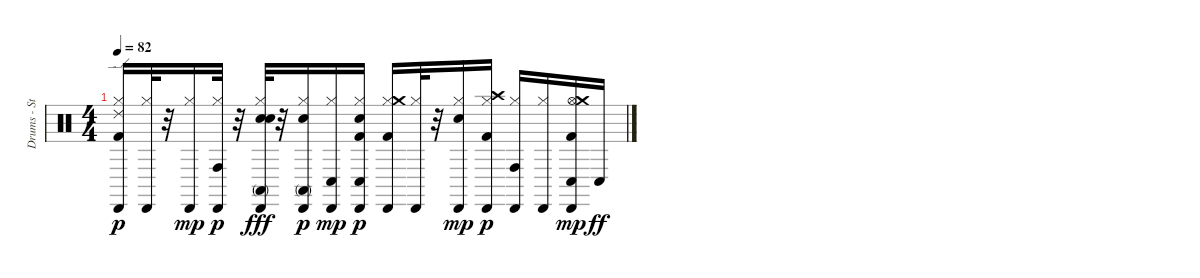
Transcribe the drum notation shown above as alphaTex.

\track ("Drums - Standard" "Drums - St") {instrument percussion}
\staff {score}
\articulation defaults
\ts (4 4)
\tempo 82
\clef neutral
\ks c
("Kick (hit) 2" "Hi-Hat (closed)" "Ride (edge) 2" "Cabasa (hit)").16{dy p} ("Hi-Hat (closed)" "Cabasa (hit)").32 r.32 ("Hi-Hat (closed)" "Cabasa (hit)").16{dy mp} ("Hi-Hat (closed)" "Conga high (hit)" "Cabasa (hit)").32{dy p} r.32 ("Snare (hit) 2" "Hi-Hat (closed)" "Conga high (mute)" "Cabasa (hit)" "Electric Snare (hit)").32{dy fff} r.32 ("Electric Snare (hit)" "Hi-Hat (closed)" "Conga high (mute)" "Cabasa (hit)").16{dy p} ("Hi-Hat (closed)" "Conga low (hit)" "Cabasa (hit)").16{dy mp} ("Kick (hit) 2" "Electric Snare (hit)" "Hi-Hat (closed)" "Conga low (hit)" "Cabasa (hit)").16{dy p} ("Kick (hit) 2" "Hi-Hat (closed)" "Crash medium (hit)" "Cabasa (hit)").16 ("Hi-Hat (closed)" "Cabasa (hit)").32 r.32 ("Electric Snare (hit)" "Hi-Hat (closed)" "Cabasa (hit)").16{dy mp} ("Kick (hit) 2" "Hi-Hat (closed)" "Crash high (hit)" "Cabasa (hit)").16{dy p} ("Hi-Hat (closed)" "Conga high (hit)" "Cabasa (hit)").16 ("Hi-Hat (closed)" "Cabasa (hit)").16 ("Kick (hit) 2" "Hi-Hat (open)" "Crash medium (hit)" "Conga low (hit)" "Cabasa (hit)").16{dy mp} "Conga low (hit)".16{dy ff}
